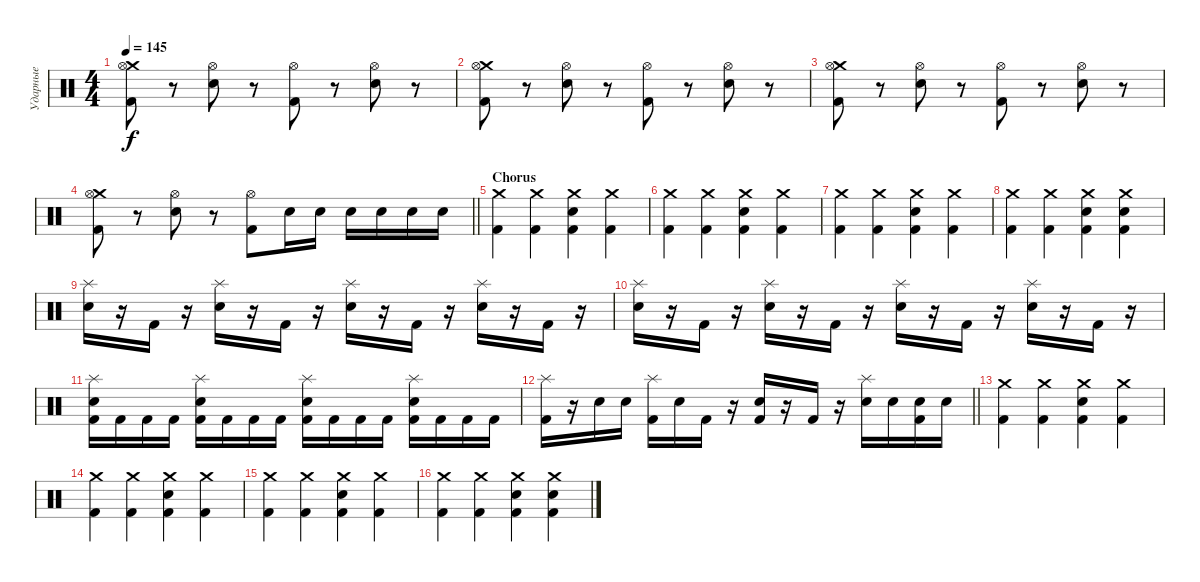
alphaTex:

\track ("Ударные" "Ударные") {instrument percussion}
\staff {score}
\articulation defaults
\ts (4 4)
\tempo 145
\clef neutral
\ks c
("Crash medium (hit)" "Hi-Hat (open)" "Kick (hit) 2").8{dy f} r.8 ("Hi-Hat (open)" "Electric Snare (hit)").8 r.8 ("Hi-Hat (open)" "Kick (hit) 2").8 r.8 ("Hi-Hat (open)" "Electric Snare (hit)").8 r.8 |
("Crash medium (hit)" "Hi-Hat (open)" "Kick (hit) 2").8 r.8 ("Hi-Hat (open)" "Electric Snare (hit)").8 r.8 ("Hi-Hat (open)" "Kick (hit) 2").8 r.8 ("Hi-Hat (open)" "Electric Snare (hit)").8 r.8 |
("Crash medium (hit)" "Hi-Hat (open)" "Kick (hit) 2").8 r.8 ("Hi-Hat (open)" "Electric Snare (hit)").8 r.8 ("Hi-Hat (open)" "Kick (hit) 2").8 r.8 ("Hi-Hat (open)" "Electric Snare (hit)").8 r.8 |
\barLineRight lightlight
("Crash medium (hit)" "Hi-Hat (open)" "Kick (hit) 2").8 r.8 ("Hi-Hat (open)" "Electric Snare (hit)").8 r.8 ("Hi-Hat (open)" "Kick (hit) 2").8 "Electric Snare (hit)".16 "Electric Snare (hit)".16 "Electric Snare (hit)".16 "Electric Snare (hit)".16 "Electric Snare (hit)".16 "Electric Snare (hit)".16 |
\section ("" "Chorus")
("Crash medium (hit)" "Kick (hit) 2").4 ("Crash medium (hit)" "Kick (hit) 2").4 ("Crash medium (hit)" "Electric Snare (hit)" "Kick (hit) 2").4 ("Crash medium (hit)" "Kick (hit) 2").4 |
("Crash medium (hit)" "Kick (hit) 2").4 ("Crash medium (hit)" "Kick (hit) 2").4 ("Crash medium (hit)" "Electric Snare (hit)" "Kick (hit) 2").4 ("Crash medium (hit)" "Kick (hit) 2").4 |
("Crash medium (hit)" "Kick (hit) 2").4 ("Crash medium (hit)" "Kick (hit) 2").4 ("Crash medium (hit)" "Electric Snare (hit)" "Kick (hit) 2").4 ("Crash medium (hit)" "Kick (hit) 2").4 |
("Crash medium (hit)" "Kick (hit) 2").4 ("Crash medium (hit)" "Kick (hit) 2").4 ("Crash medium (hit)" "Electric Snare (hit)" "Kick (hit) 2").4 ("Crash medium (hit)" "Electric Snare (hit)" "Kick (hit) 2").4 |
("Splash (hit)" "Electric Snare (hit)").16 r.16 "Kick (hit) 2".16 r.16 ("Splash (hit)" "Electric Snare (hit)").16 r.16 "Kick (hit) 2".16 r.16 ("Splash (hit)" "Electric Snare (hit)").16 r.16 "Kick (hit) 2".16 r.16 ("Splash (hit)" "Electric Snare (hit)").16 r.16 "Kick (hit) 2".16 r.16 |
("Splash (hit)" "Electric Snare (hit)").16 r.16 "Kick (hit) 2".16 r.16 ("Splash (hit)" "Electric Snare (hit)").16 r.16 "Kick (hit) 2".16 r.16 ("Splash (hit)" "Electric Snare (hit)").16 r.16 "Kick (hit) 2".16 r.16 ("Splash (hit)" "Electric Snare (hit)").16 r.16 "Kick (hit) 2".16 r.16 |
("Splash (hit)" "Electric Snare (hit)" "Kick (hit) 2").16 "Kick (hit) 2".16 "Kick (hit) 2".16 "Kick (hit) 2".16 ("Splash (hit)" "Electric Snare (hit)" "Kick (hit) 2").16 "Kick (hit) 2".16 "Kick (hit) 2".16 "Kick (hit) 2".16 ("Splash (hit)" "Electric Snare (hit)" "Kick (hit) 2").16 "Kick (hit) 2".16 "Kick (hit) 2".16 "Kick (hit) 2".16 ("Splash (hit)" "Electric Snare (hit)" "Kick (hit) 2").16 "Kick (hit) 2".16 "Kick (hit) 2".16 "Kick (hit) 2".16 |
\barLineRight lightlight
("Splash (hit)" "Kick (hit) 2").16 r.16 "Electric Snare (hit)".16 "Electric Snare (hit)".16 ("Splash (hit)" "Kick (hit) 2").16 "Electric Snare (hit)".16 "Kick (hit) 2".16 r.16 ("Electric Snare (hit)" "Kick (hit) 2").16 r.16 "Kick (hit) 2".16 r.16 ("Splash (hit)" "Electric Snare (hit)").16 "Electric Snare (hit)".16 ("Electric Snare (hit)" "Kick (hit) 2").16 "Electric Snare (hit)".16 |
("Crash medium (hit)" "Kick (hit) 2").4 ("Crash medium (hit)" "Kick (hit) 2").4 ("Crash medium (hit)" "Electric Snare (hit)" "Kick (hit) 2").4 ("Crash medium (hit)" "Kick (hit) 2").4 |
("Crash medium (hit)" "Kick (hit) 2").4 ("Crash medium (hit)" "Kick (hit) 2").4 ("Crash medium (hit)" "Electric Snare (hit)" "Kick (hit) 2").4 ("Crash medium (hit)" "Kick (hit) 2").4 |
("Crash medium (hit)" "Kick (hit) 2").4 ("Crash medium (hit)" "Kick (hit) 2").4 ("Crash medium (hit)" "Electric Snare (hit)" "Kick (hit) 2").4 ("Crash medium (hit)" "Kick (hit) 2").4 |
("Crash medium (hit)" "Kick (hit) 2").4 ("Crash medium (hit)" "Kick (hit) 2").4 ("Crash medium (hit)" "Electric Snare (hit)" "Kick (hit) 2").4 ("Crash medium (hit)" "Electric Snare (hit)" "Kick (hit) 2").4
